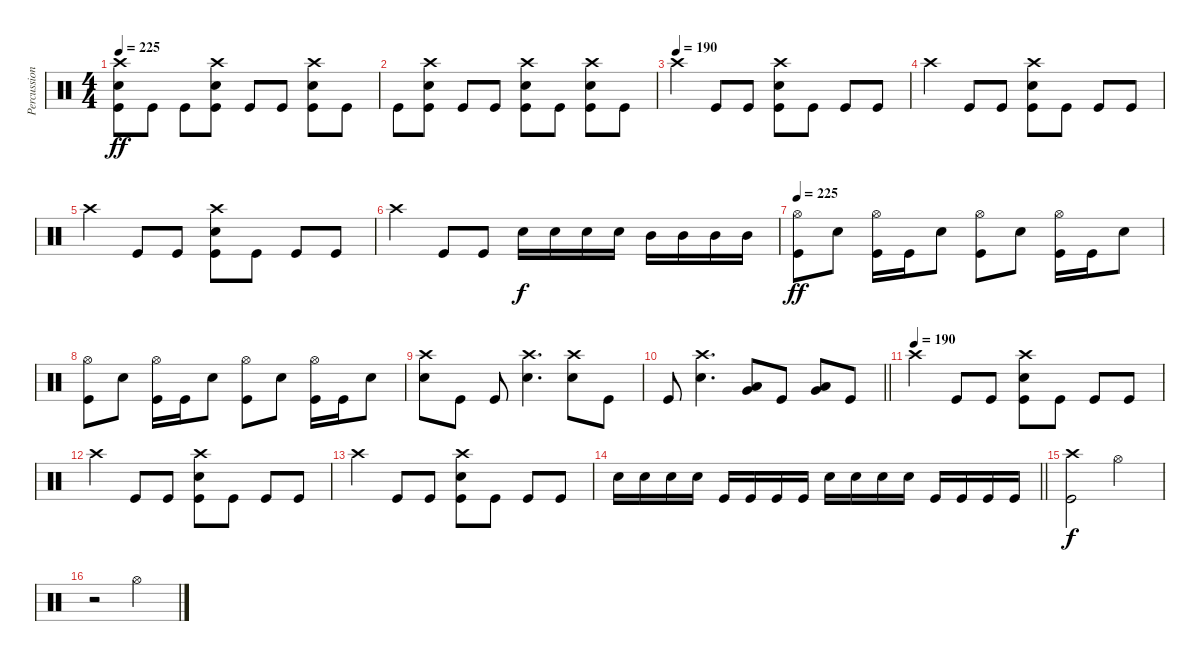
\track ("Percussion" "Percussion") {instrument percussion}
\staff {score}
\articulation defaults
\ts (4 4)
\tempo 225
\clef neutral
\ks c
("Kick (hit)" "Snare (hit) 2" "Crash high (hit)").8{dy ff} "Kick (hit)".8 "Kick (hit)".8 ("Kick (hit)" "Crash high (hit)" "Snare (hit) 2").8 "Kick (hit)".8 "Kick (hit)".8 ("Kick (hit)" "Crash high (hit)" "Snare (hit) 2").8 "Kick (hit)".8 |
"Kick (hit)".8 ("Kick (hit)" "Crash high (hit)" "Snare (hit) 2").8 "Kick (hit)".8 "Kick (hit)".8 ("Kick (hit)" "Crash high (hit)" "Snare (hit) 2").8 "Kick (hit)".8 ("Kick (hit)" "Crash high (hit)" "Snare (hit) 2").8 "Kick (hit)".8 |
\tempo (190)
"Crash high (hit)".4 "Kick (hit)".8 "Kick (hit)".8 ("Snare (hit) 2" "Crash high (hit)" "Kick (hit)").8 "Kick (hit)".8 "Kick (hit)".8 "Kick (hit)".8 |
"Crash high (hit)".4 "Kick (hit)".8 "Kick (hit)".8 ("Snare (hit) 2" "Crash high (hit)" "Kick (hit)").8 "Kick (hit)".8 "Kick (hit)".8 "Kick (hit)".8 |
"Crash high (hit)".4 "Kick (hit)".8 "Kick (hit)".8 ("Snare (hit) 2" "Crash high (hit)" "Kick (hit)").8 "Kick (hit)".8 "Kick (hit)".8 "Kick (hit)".8 |
"Crash high (hit)".4 "Kick (hit)".8 "Kick (hit)".8 "Snare (hit) 2".16{dy f} "Snare (hit) 2".16 "Snare (hit) 2".16 "Snare (hit) 2".16 "Mid Tom (hit)".16 "Mid Tom (hit)".16 "Mid Tom (hit)".16 "Mid Tom (hit)".16 |
\tempo 225
("Hi-Hat (open)" "Kick (hit)").8{dy ff} "Snare (hit) 2".8 ("Hi-Hat (open)" "Kick (hit)").16 "Kick (hit)".16 "Snare (hit) 2".8 ("Hi-Hat (open)" "Kick (hit)").8 "Snare (hit) 2".8 ("Hi-Hat (open)" "Kick (hit)").16 "Kick (hit)".16 "Snare (hit) 2".8 |
("Hi-Hat (open)" "Kick (hit)").8 "Snare (hit) 2".8 ("Hi-Hat (open)" "Kick (hit)").16 "Kick (hit)".16 "Snare (hit) 2".8 ("Hi-Hat (open)" "Kick (hit)").8 "Snare (hit) 2".8 ("Hi-Hat (open)" "Kick (hit)").16 "Kick (hit)".16 "Snare (hit) 2".8 |
("Crash high (hit)" "Snare (hit) 2").8 "Kick (hit)".8 "Kick (hit)".8 ("Snare (hit) 2" "Crash high (hit)").4{d} ("Crash high (hit)" "Snare (hit) 2").8 "Kick (hit)".8 |
\barLineRight lightlight "Kick (hit)".8
("Snare (hit) 2" "Crash high (hit)").4{d} ("Very Low Tom (hit)" "Low Tom (hit)").8 "Kick (hit)".8 ("Low Floor Tom (hit)" "Very Low Tom (hit)").8 "Kick (hit)".8 |
\tempo (190)
"Crash high (hit)".4 "Kick (hit)".8 "Kick (hit)".8 ("Snare (hit) 2" "Crash high (hit)" "Kick (hit)").8 "Kick (hit)".8 "Kick (hit)".8 "Kick (hit)".8 |
"Crash high (hit)".4 "Kick (hit)".8 "Kick (hit)".8 ("Snare (hit) 2" "Crash high (hit)" "Kick (hit)").8 "Kick (hit)".8 "Kick (hit)".8 "Kick (hit)".8 |
"Crash high (hit)".4 "Kick (hit)".8 "Kick (hit)".8 ("Snare (hit) 2" "Crash high (hit)" "Kick (hit)").8 "Kick (hit)".8 "Kick (hit)".8 "Kick (hit)".8 |
\barLineRight lightlight "Snare (hit) 2".16 "Snare (hit) 2".16 "Snare (hit) 2".16 "Snare (hit) 2".16 "Kick (hit)".16 "Kick (hit)".16 "Kick (hit)".16 "Kick (hit)".16 "Snare (hit) 2".16 "Snare (hit) 2".16 "Snare (hit) 2".16 "Snare (hit) 2".16 "Kick (hit)".16 "Kick (hit)".16 "Kick (hit)".16 "Kick (hit)".16
|
("Crash high (hit)" "Kick (hit)").2{dy f} "Hi-Hat (open)".2 |
r.2 "Hi-Hat (open)".2
